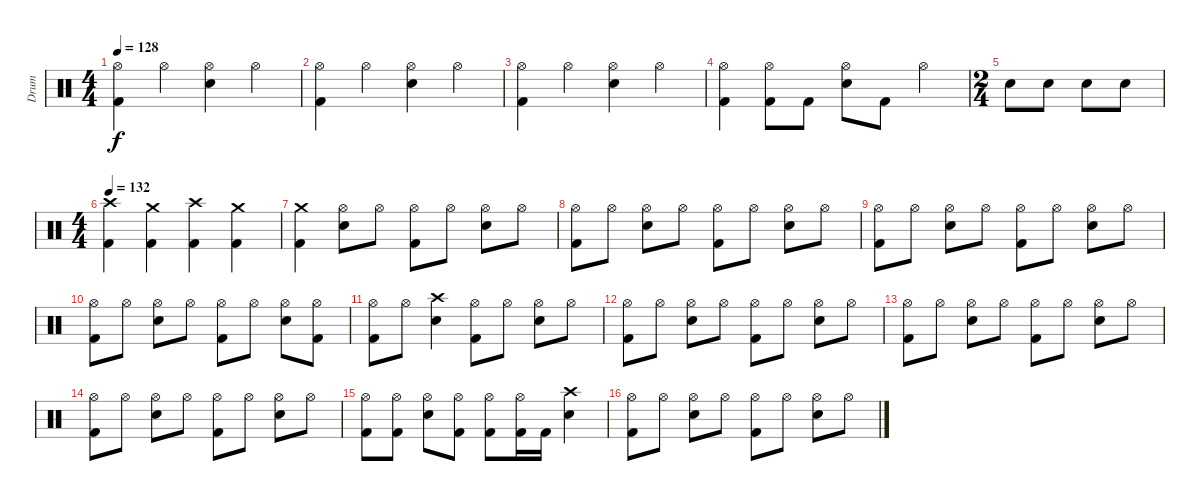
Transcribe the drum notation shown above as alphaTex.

\track ("Drum" "Drum") {instrument percussion}
\staff {score}
\articulation defaults
\ts (4 4)
\tempo 128
\clef neutral
\ks c
("Hi-Hat (open)" "Kick (hit) 2").4{dy f} "Hi-Hat (open)".4 ("Hi-Hat (open)" "Snare (hit) 2").4 "Hi-Hat (open)".4 |
("Hi-Hat (open)" "Kick (hit) 2").4 "Hi-Hat (open)".4 ("Hi-Hat (open)" "Snare (hit) 2").4 "Hi-Hat (open)".4 |
("Hi-Hat (open)" "Kick (hit) 2").4 "Hi-Hat (open)".4 ("Hi-Hat (open)" "Snare (hit) 2").4 "Hi-Hat (open)".4 |
("Hi-Hat (open)" "Kick (hit) 2").4 ("Hi-Hat (open)" "Kick (hit) 2").8 "Kick (hit) 2".8 ("Hi-Hat (open)" "Snare (hit) 2").8 "Kick (hit) 2".8 "Hi-Hat (open)".4 |
\ts (2 4)
"Snare (hit) 2".8 "Snare (hit) 2".8 "Snare (hit) 2".8 "Snare (hit) 2".8 |
\ts (4 4)
\tempo 132
("Crash high (hit)" "Kick (hit) 2").4 ("Crash medium (hit)" "Kick (hit) 2").4 ("Crash high (hit)" "Kick (hit) 2").4 ("Crash medium (hit)" "Kick (hit) 2").4 |
("Crash medium (hit)" "Kick (hit) 2").4 ("Hi-Hat (open)" "Snare (hit) 2").8 "Hi-Hat (open)".8 ("Hi-Hat (open)" "Kick (hit) 2").8 "Hi-Hat (open)".8 ("Hi-Hat (open)" "Snare (hit) 2").8 "Hi-Hat (open)".8 |
("Hi-Hat (open)" "Kick (hit) 2").8 "Hi-Hat (open)".8 ("Hi-Hat (open)" "Snare (hit) 2").8 "Hi-Hat (open)".8 ("Hi-Hat (open)" "Kick (hit) 2").8 "Hi-Hat (open)".8 ("Hi-Hat (open)" "Snare (hit) 2").8 "Hi-Hat (open)".8 |
("Hi-Hat (open)" "Kick (hit) 2").8 "Hi-Hat (open)".8 ("Hi-Hat (open)" "Snare (hit) 2").8 "Hi-Hat (open)".8 ("Hi-Hat (open)" "Kick (hit) 2").8 "Hi-Hat (open)".8 ("Hi-Hat (open)" "Snare (hit) 2").8 "Hi-Hat (open)".8 |
("Hi-Hat (open)" "Kick (hit) 2").8 "Hi-Hat (open)".8 ("Hi-Hat (open)" "Snare (hit) 2").8 "Hi-Hat (open)".8 ("Hi-Hat (open)" "Kick (hit) 2").8 "Hi-Hat (open)".8 ("Hi-Hat (open)" "Snare (hit) 2").8 ("Hi-Hat (open)" "Kick (hit) 2").8 |
("Hi-Hat (open)" "Kick (hit) 2").8 "Hi-Hat (open)".8 ("Crash high (hit)" "Snare (hit) 2").4 ("Hi-Hat (open)" "Kick (hit) 2").8 "Hi-Hat (open)".8 ("Hi-Hat (open)" "Snare (hit) 2").8 "Hi-Hat (open)".8 |
("Hi-Hat (open)" "Kick (hit) 2").8 "Hi-Hat (open)".8 ("Hi-Hat (open)" "Snare (hit) 2").8 "Hi-Hat (open)".8 ("Hi-Hat (open)" "Kick (hit) 2").8 "Hi-Hat (open)".8 ("Hi-Hat (open)" "Snare (hit) 2").8 "Hi-Hat (open)".8 |
("Hi-Hat (open)" "Kick (hit) 2").8 "Hi-Hat (open)".8 ("Hi-Hat (open)" "Snare (hit) 2").8 "Hi-Hat (open)".8 ("Hi-Hat (open)" "Kick (hit) 2").8 "Hi-Hat (open)".8 ("Hi-Hat (open)" "Snare (hit) 2").8 "Hi-Hat (open)".8 |
("Hi-Hat (open)" "Kick (hit) 2").8 "Hi-Hat (open)".8 ("Hi-Hat (open)" "Snare (hit) 2").8 "Hi-Hat (open)".8 ("Hi-Hat (open)" "Kick (hit) 2").8 "Hi-Hat (open)".8 ("Hi-Hat (open)" "Snare (hit) 2").8 "Hi-Hat (open)".8 |
("Hi-Hat (open)" "Kick (hit) 2").8 ("Hi-Hat (open)" "Kick (hit) 2").8 ("Hi-Hat (open)" "Snare (hit) 2").8 ("Hi-Hat (open)" "Kick (hit) 2").8 ("Hi-Hat (open)" "Kick (hit) 2").8 ("Hi-Hat (open)" "Kick (hit) 2").16 "Kick (hit) 2".16 ("Crash high (hit)" "Snare (hit) 2").4 |
("Hi-Hat (open)" "Kick (hit) 2").8 "Hi-Hat (open)".8 ("Hi-Hat (open)" "Snare (hit) 2").8 "Hi-Hat (open)".8 ("Hi-Hat (open)" "Kick (hit) 2").8 "Hi-Hat (open)".8 ("Hi-Hat (open)" "Snare (hit) 2").8 "Hi-Hat (open)".8
